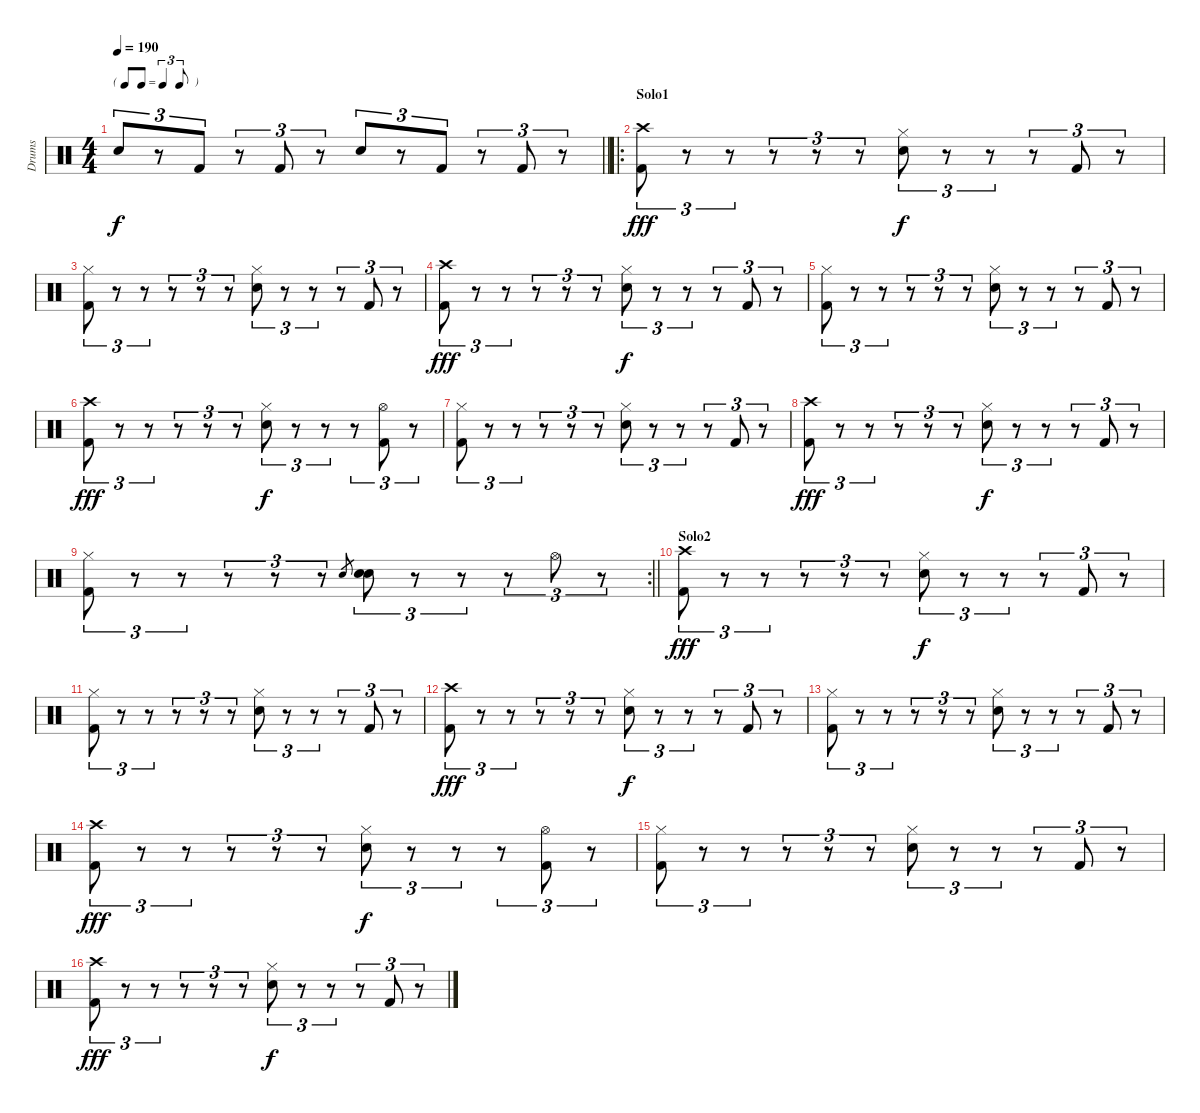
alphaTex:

\track ("Drums" "Drums") {instrument percussion}
\staff {score}
\articulation defaults
\ts (4 4)
\tf triplet8th
\tempo 190
\clef neutral
\barLineRight lightlight
\ks c "Electric Snare (hit)".8{tu (3 2) dy f}
r.8{tu (3 2)} "Kick (hit) 2".8{tu (3 2)} r.8{tu (3 2)} "Kick (hit) 2".8{tu (3 2)} r.8{tu (3 2)} "Electric Snare (hit)".8{tu (3 2)} r.8{tu (3 2)} "Kick (hit) 2".8{tu (3 2)} r.8{tu (3 2)} "Kick (hit) 2".8{tu (3 2)} r.8{tu (3 2)} |
\ro
\section ("" "Solo1")
("Crash high (hit)" "Kick (hit) 2").8{tu (3 2) dy fff} r.8{tu (3 2)} r.8{tu (3 2)} r.8{tu (3 2)} r.8{tu (3 2)} r.8{tu (3 2)} ("Hi-Hat (closed)" "Electric Snare (hit)").8{tu (3 2) dy f} r.8{tu (3 2)} r.8{tu (3 2)} r.8{tu (3 2)} "Kick (hit) 2".8{tu (3 2)} r.8{tu (3 2)} |
("Hi-Hat (closed)" "Kick (hit) 2").8{tu (3 2)} r.8{tu (3 2)} r.8{tu (3 2)} r.8{tu (3 2)} r.8{tu (3 2)} r.8{tu (3 2)} ("Hi-Hat (closed)" "Electric Snare (hit)").8{tu (3 2)} r.8{tu (3 2)} r.8{tu (3 2)} r.8{tu (3 2)} "Kick (hit) 2".8{tu (3 2)} r.8{tu (3 2)} |
("Crash high (hit)" "Kick (hit) 2").8{tu (3 2) dy fff} r.8{tu (3 2)} r.8{tu (3 2)} r.8{tu (3 2)} r.8{tu (3 2)} r.8{tu (3 2)} ("Hi-Hat (closed)" "Electric Snare (hit)").8{tu (3 2) dy f} r.8{tu (3 2)} r.8{tu (3 2)} r.8{tu (3 2)} "Kick (hit) 2".8{tu (3 2)} r.8{tu (3 2)} |
("Hi-Hat (closed)" "Kick (hit) 2").8{tu (3 2)} r.8{tu (3 2)} r.8{tu (3 2)} r.8{tu (3 2)} r.8{tu (3 2)} r.8{tu (3 2)} ("Hi-Hat (closed)" "Electric Snare (hit)").8{tu (3 2)} r.8{tu (3 2)} r.8{tu (3 2)} r.8{tu (3 2)} "Kick (hit) 2".8{tu (3 2)} r.8{tu (3 2)} |
("Crash high (hit)" "Kick (hit) 2").8{tu (3 2) dy fff} r.8{tu (3 2)} r.8{tu (3 2)} r.8{tu (3 2)} r.8{tu (3 2)} r.8{tu (3 2)} ("Hi-Hat (closed)" "Electric Snare (hit)").8{tu (3 2) dy f} r.8{tu (3 2)} r.8{tu (3 2)} r.8{tu (3 2)} ("Hi-Hat (open)" "Kick (hit) 2").8{tu (3 2)} r.8{tu (3 2)} |
("Hi-Hat (closed)" "Kick (hit) 2").8{tu (3 2)} r.8{tu (3 2)} r.8{tu (3 2)} r.8{tu (3 2)} r.8{tu (3 2)} r.8{tu (3 2)} ("Hi-Hat (closed)" "Electric Snare (hit)").8{tu (3 2)} r.8{tu (3 2)} r.8{tu (3 2)} r.8{tu (3 2)} "Kick (hit) 2".8{tu (3 2)} r.8{tu (3 2)} |
("Crash high (hit)" "Kick (hit) 2").8{tu (3 2) dy fff} r.8{tu (3 2)} r.8{tu (3 2)} r.8{tu (3 2)} r.8{tu (3 2)} r.8{tu (3 2)} ("Hi-Hat (closed)" "Electric Snare (hit)").8{tu (3 2) dy f} r.8{tu (3 2)} r.8{tu (3 2)} r.8{tu (3 2)} "Kick (hit) 2".8{tu (3 2)} r.8{tu (3 2)} |
\rc 2
\barLineRight lightlight
("Hi-Hat (closed)" "Kick (hit) 2").8{tu (3 2)} r.8{tu (3 2)} r.8{tu (3 2)} r.8{tu (3 2)} r.8{tu (3 2)} r.8{tu (3 2)} "Electric Snare (hit)".8{gr} ("Electric Snare (hit)" "Electric Snare (hit)").8{tu (3 2)} r.8{tu (3 2)} r.8{tu (3 2)} r.8{tu (3 2)} "Hi-Hat (open)".8{tu (3 2)} r.8{tu (3 2)} |
\section ("" "Solo2")
("Crash high (hit)" "Kick (hit) 2").8{tu (3 2) dy fff} r.8{tu (3 2)} r.8{tu (3 2)} r.8{tu (3 2)} r.8{tu (3 2)} r.8{tu (3 2)} ("Hi-Hat (closed)" "Electric Snare (hit)").8{tu (3 2) dy f} r.8{tu (3 2)} r.8{tu (3 2)} r.8{tu (3 2)} "Kick (hit) 2".8{tu (3 2)} r.8{tu (3 2)} |
("Hi-Hat (closed)" "Kick (hit) 2").8{tu (3 2)} r.8{tu (3 2)} r.8{tu (3 2)} r.8{tu (3 2)} r.8{tu (3 2)} r.8{tu (3 2)} ("Hi-Hat (closed)" "Electric Snare (hit)").8{tu (3 2)} r.8{tu (3 2)} r.8{tu (3 2)} r.8{tu (3 2)} "Kick (hit) 2".8{tu (3 2)} r.8{tu (3 2)} |
("Crash high (hit)" "Kick (hit) 2").8{tu (3 2) dy fff} r.8{tu (3 2)} r.8{tu (3 2)} r.8{tu (3 2)} r.8{tu (3 2)} r.8{tu (3 2)} ("Hi-Hat (closed)" "Electric Snare (hit)").8{tu (3 2) dy f} r.8{tu (3 2)} r.8{tu (3 2)} r.8{tu (3 2)} "Kick (hit) 2".8{tu (3 2)} r.8{tu (3 2)} |
("Hi-Hat (closed)" "Kick (hit) 2").8{tu (3 2)} r.8{tu (3 2)} r.8{tu (3 2)} r.8{tu (3 2)} r.8{tu (3 2)} r.8{tu (3 2)} ("Hi-Hat (closed)" "Electric Snare (hit)").8{tu (3 2)} r.8{tu (3 2)} r.8{tu (3 2)} r.8{tu (3 2)} "Kick (hit) 2".8{tu (3 2)} r.8{tu (3 2)} |
("Crash high (hit)" "Kick (hit) 2").8{tu (3 2) dy fff} r.8{tu (3 2)} r.8{tu (3 2)} r.8{tu (3 2)} r.8{tu (3 2)} r.8{tu (3 2)} ("Hi-Hat (closed)" "Electric Snare (hit)").8{tu (3 2) dy f} r.8{tu (3 2)} r.8{tu (3 2)} r.8{tu (3 2)} ("Hi-Hat (open)" "Kick (hit) 2").8{tu (3 2)} r.8{tu (3 2)} |
("Hi-Hat (closed)" "Kick (hit) 2").8{tu (3 2)} r.8{tu (3 2)} r.8{tu (3 2)} r.8{tu (3 2)} r.8{tu (3 2)} r.8{tu (3 2)} ("Hi-Hat (closed)" "Electric Snare (hit)").8{tu (3 2)} r.8{tu (3 2)} r.8{tu (3 2)} r.8{tu (3 2)} "Kick (hit) 2".8{tu (3 2)} r.8{tu (3 2)} |
("Crash high (hit)" "Kick (hit) 2").8{tu (3 2) dy fff} r.8{tu (3 2)} r.8{tu (3 2)} r.8{tu (3 2)} r.8{tu (3 2)} r.8{tu (3 2)} ("Hi-Hat (closed)" "Electric Snare (hit)").8{tu (3 2) dy f} r.8{tu (3 2)} r.8{tu (3 2)} r.8{tu (3 2)} "Kick (hit) 2".8{tu (3 2)} r.8{tu (3 2)}
